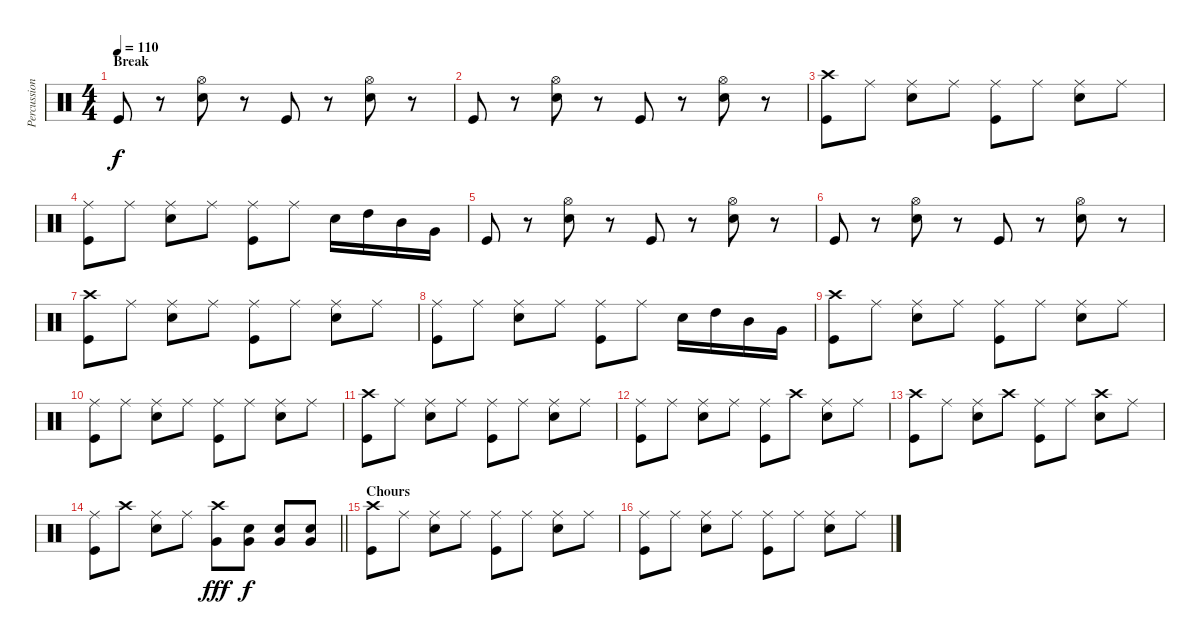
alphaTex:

\track ("Percussion" "Percussion") {instrument percussion}
\staff {score}
\articulation defaults
\ts (4 4)
\section ("" "Break")
\tempo 110
\clef neutral
\ks c "Kick (hit)".8{dy f}
r.8 ("Hi-Hat (open)" "Snare (hit) 2").8 r.8 "Kick (hit)".8 r.8 ("Hi-Hat (open)" "Snare (hit) 2").8 r.8 |
"Kick (hit)".8 r.8 ("Hi-Hat (open)" "Snare (hit) 2").8 r.8 "Kick (hit)".8 r.8 ("Hi-Hat (open)" "Snare (hit) 2").8 r.8 |
("Crash high (hit)" "Kick (hit)").8 "Ride (middle)".8 ("Ride (middle)" "Snare (hit) 2").8 "Ride (middle)".8 ("Ride (middle)" "Kick (hit)").8 "Ride (middle)".8 ("Ride (middle)" "Snare (hit) 2").8 "Ride (middle)".8 |
("Ride (middle)" "Kick (hit)").8 "Ride (middle)".8 ("Ride (middle)" "Snare (hit) 2").8 "Ride (middle)".8 ("Ride (middle)" "Kick (hit)").8 "Ride (middle)".8 "Snare (hit) 2".16 "High Tom (hit)".16 "Mid Tom (hit)".16 "Very Low Tom (hit)".16 |
"Kick (hit)".8 r.8 ("Hi-Hat (open)" "Snare (hit) 2").8 r.8 "Kick (hit)".8 r.8 ("Hi-Hat (open)" "Snare (hit) 2").8 r.8 |
"Kick (hit)".8 r.8 ("Hi-Hat (open)" "Snare (hit) 2").8 r.8 "Kick (hit)".8 r.8 ("Hi-Hat (open)" "Snare (hit) 2").8 r.8 |
("Crash high (hit)" "Kick (hit)").8 "Ride (middle)".8 ("Ride (middle)" "Snare (hit) 2").8 "Ride (middle)".8 ("Ride (middle)" "Kick (hit)").8 "Ride (middle)".8 ("Ride (middle)" "Snare (hit) 2").8 "Ride (middle)".8 |
("Ride (middle)" "Kick (hit)").8 "Ride (middle)".8 ("Ride (middle)" "Snare (hit) 2").8 "Ride (middle)".8 ("Ride (middle)" "Kick (hit)").8 "Ride (middle)".8 "Snare (hit) 2".16 "High Tom (hit)".16 "Mid Tom (hit)".16 "Very Low Tom (hit)".16 |
("Crash high (hit)" "Kick (hit)").8 "Ride (middle)".8 ("Ride (middle)" "Snare (hit) 2").8 "Ride (middle)".8 ("Ride (middle)" "Kick (hit)").8 "Ride (middle)".8 ("Ride (middle)" "Snare (hit) 2").8 "Ride (middle)".8 |
("Ride (middle)" "Kick (hit)").8 "Ride (middle)".8 ("Ride (middle)" "Snare (hit) 2").8 "Ride (middle)".8 ("Ride (middle)" "Kick (hit)").8 "Ride (middle)".8 ("Ride (middle)" "Snare (hit) 2").8 "Ride (middle)".8 |
("Crash high (hit)" "Kick (hit)").8 "Ride (middle)".8 ("Ride (middle)" "Snare (hit) 2").8 "Ride (middle)".8 ("Ride (middle)" "Kick (hit)").8 "Ride (middle)".8 ("Ride (middle)" "Snare (hit) 2").8 "Ride (middle)".8 |
("Ride (middle)" "Kick (hit)").8 "Ride (middle)".8 ("Ride (middle)" "Snare (hit) 2").8 "Ride (middle)".8 ("Ride (middle)" "Kick (hit)").8 "Crash high (hit)".8 ("Ride (middle)" "Snare (hit) 2").8 "Ride (middle)".8 |
("Crash high (hit)" "Kick (hit)").8 "Ride (middle)".8 ("Ride (middle)" "Snare (hit) 2").8 "Crash high (hit)".8 ("Ride (middle)" "Kick (hit)").8 "Ride (middle)".8 ("Crash high (hit)" "Snare (hit) 2").8 "Ride (middle)".8 |
\barLineRight lightlight
("Ride (middle)" "Kick (hit)").8 "Crash high (hit)".8 ("Ride (middle)" "Snare (hit) 2").8 "Ride (middle)".8 ("Very Low Tom (hit)" "Crash high (hit)").8{dy fff} ("Very Low Tom (hit)" "Snare (hit) 2").8{dy f} ("Very Low Tom (hit)" "Snare (hit) 2").8 ("Very Low Tom (hit)" "Snare (hit) 2").8 |
\section ("" "Chours")
("Crash high (hit)" "Kick (hit)").8 "Ride (middle)".8 ("Ride (middle)" "Snare (hit) 2").8 "Ride (middle)".8 ("Ride (middle)" "Kick (hit)").8 "Ride (middle)".8 ("Ride (middle)" "Snare (hit) 2").8 "Ride (middle)".8 |
("Ride (middle)" "Kick (hit)").8 "Ride (middle)".8 ("Ride (middle)" "Snare (hit) 2").8 "Ride (middle)".8 ("Ride (middle)" "Kick (hit)").8 "Ride (middle)".8 ("Ride (middle)" "Snare (hit) 2").8 "Ride (middle)".8
